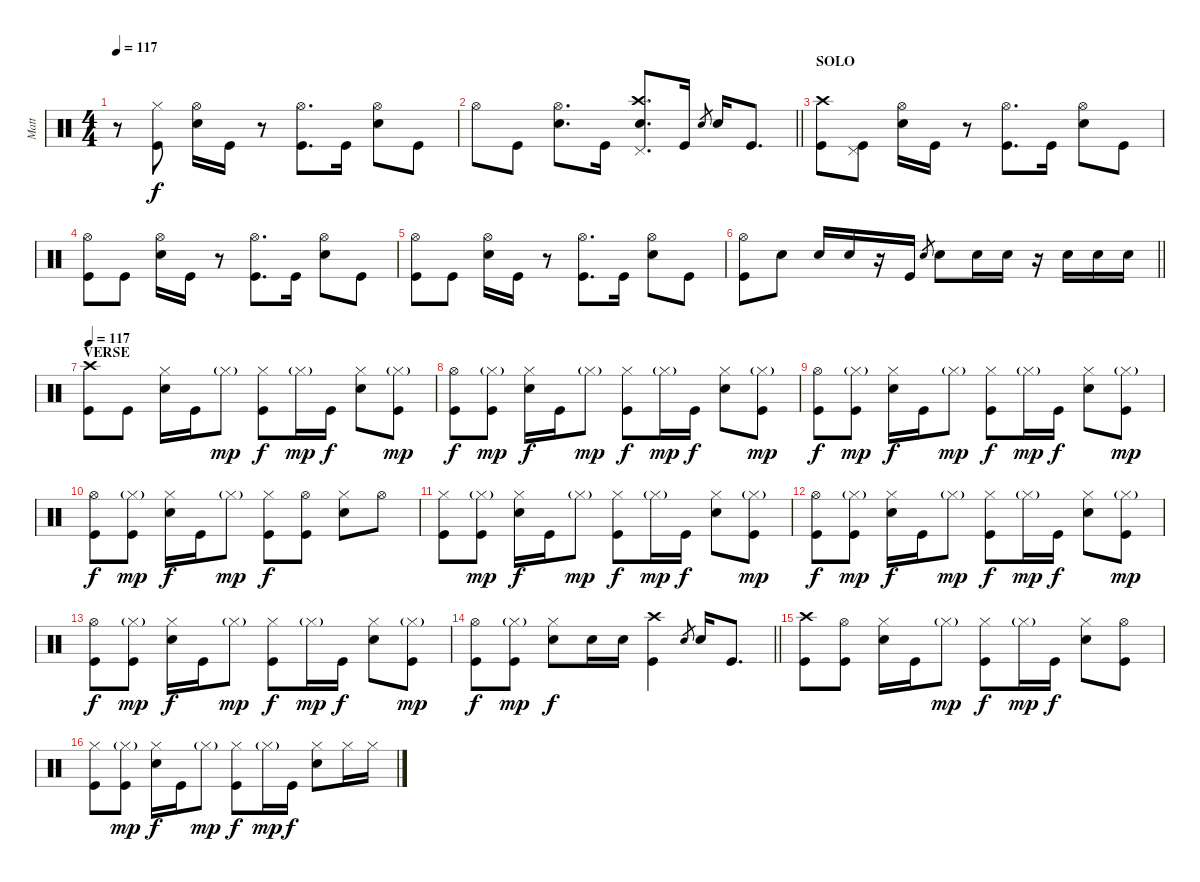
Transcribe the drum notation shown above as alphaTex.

\track ("Matt" "Matt") {instrument percussion}
\staff {score}
\articulation defaults
\ts (4 4)
\tempo 117
\clef neutral
\ks c
r.8{dy f} ("Kick (hit)" "Hi-Hat (closed)").8 ("Snare (hit) 2" "Hi-Hat (open)").16 "Kick (hit)".16 r.8 ("Kick (hit)" "Hi-Hat (open)").8{d} "Kick (hit)".16 ("Snare (hit) 2" "Hi-Hat (open)").8 "Kick (hit)".8 |
\barLineRight lightlight "Hi-Hat (open)".8 "Kick (hit)".8
("Snare (hit) 2" "Hi-Hat (open)").8{d} "Kick (hit)".16 ("Crash high (hit)" "Snare (hit) 2" "Pedal Hi-Hat (hit)").8{d} "Kick (hit)".16 "Snare (hit) 2".8{gr} "Snare (hit) 2".16 "Kick (hit)".8{d} |
\section ("" "SOLO")
("Crash high (hit)" "Kick (hit)").8 ("Kick (hit)" "Pedal Hi-Hat (hit)").8 ("Snare (hit) 2" "Hi-Hat (open)").16 "Kick (hit)".16 r.8 ("Kick (hit)" "Hi-Hat (open)").8{d} "Kick (hit)".16 ("Snare (hit) 2" "Hi-Hat (open)").8 "Kick (hit)".8 |
("Kick (hit)" "Hi-Hat (open)").8 "Kick (hit)".8 ("Snare (hit) 2" "Hi-Hat (open)").16 "Kick (hit)".16 r.8 ("Kick (hit)" "Hi-Hat (open)").8{d} "Kick (hit)".16 ("Snare (hit) 2" "Hi-Hat (open)").8 "Kick (hit)".8 |
("Kick (hit)" "Hi-Hat (open)").8 "Kick (hit)".8 ("Snare (hit) 2" "Hi-Hat (open)").16 "Kick (hit)".16 r.8 ("Kick (hit)" "Hi-Hat (open)").8{d} "Kick (hit)".16 ("Snare (hit) 2" "Hi-Hat (open)").8 "Kick (hit)".8 |
\barLineRight lightlight
("Kick (hit)" "Hi-Hat (open)").8 "Snare (hit) 2".8 "Snare (hit) 2".16 "Snare (hit) 2".16 r.16 "Kick (hit)".16 "Snare (hit) 2".8{gr} "Snare (hit) 2".8 "Snare (hit) 2".16 "Snare (hit) 2".16 r.16 "Snare (hit) 2".16 "Snare (hit) 2".16 "Snare (hit) 2".16 |
\section ("" "VERSE")
\tempo 117
("Crash high (hit)" "Kick (hit)").8 "Kick (hit)".8 ("Snare (hit) 2" "Hi-Hat (closed)").16 "Kick (hit)".16 "Hi-Hat (closed)"{g}.8{dy mp} ("Kick (hit)" "Hi-Hat (closed)").8{dy f} "Hi-Hat (closed)"{g}.16{dy mp} "Kick (hit)".16{dy f} ("Snare (hit) 2" "Hi-Hat (closed)").8 ("Kick (hit)" "Hi-Hat (closed)"{g}).8{dy mp} |
("Kick (hit)" "Hi-Hat (open)").8{dy f} ("Kick (hit)" "Hi-Hat (closed)"{g}).8{dy mp} ("Snare (hit) 2" "Hi-Hat (closed)").16{dy f} "Kick (hit)".16 "Hi-Hat (closed)"{g}.8{dy mp} ("Kick (hit)" "Hi-Hat (closed)").8{dy f} "Hi-Hat (closed)"{g}.16{dy mp} "Kick (hit)".16{dy f} ("Snare (hit) 2" "Hi-Hat (closed)").8 ("Kick (hit)" "Hi-Hat (closed)"{g}).8{dy mp} |
("Kick (hit)" "Hi-Hat (open)").8{dy f} ("Kick (hit)" "Hi-Hat (closed)"{g}).8{dy mp} ("Snare (hit) 2" "Hi-Hat (closed)").16{dy f} "Kick (hit)".16 "Hi-Hat (closed)"{g}.8{dy mp} ("Kick (hit)" "Hi-Hat (closed)").8{dy f} "Hi-Hat (closed)"{g}.16{dy mp} "Kick (hit)".16{dy f} ("Snare (hit) 2" "Hi-Hat (closed)").8 ("Kick (hit)" "Hi-Hat (closed)"{g}).8{dy mp} |
("Kick (hit)" "Hi-Hat (open)").8{dy f} ("Kick (hit)" "Hi-Hat (closed)"{g}).8{dy mp} ("Snare (hit) 2" "Hi-Hat (closed)").16{dy f} "Kick (hit)".16 "Hi-Hat (closed)"{g}.8{dy mp} ("Kick (hit)" "Hi-Hat (closed)").8{dy f} ("Kick (hit)" "Hi-Hat (open)").8 ("Snare (hit) 2" "Hi-Hat (closed)").8 "Hi-Hat (open)".8 |
("Kick (hit)" "Hi-Hat (closed)").8 ("Kick (hit)" "Hi-Hat (closed)"{g}).8{dy mp} ("Snare (hit) 2" "Hi-Hat (closed)").16{dy f} "Kick (hit)".16 "Hi-Hat (closed)"{g}.8{dy mp} ("Kick (hit)" "Hi-Hat (closed)").8{dy f} "Hi-Hat (closed)"{g}.16{dy mp} "Kick (hit)".16{dy f} ("Snare (hit) 2" "Hi-Hat (closed)").8 ("Kick (hit)" "Hi-Hat (closed)"{g}).8{dy mp} |
("Kick (hit)" "Hi-Hat (open)").8{dy f} ("Kick (hit)" "Hi-Hat (closed)"{g}).8{dy mp} ("Snare (hit) 2" "Hi-Hat (closed)").16{dy f} "Kick (hit)".16 "Hi-Hat (closed)"{g}.8{dy mp} ("Kick (hit)" "Hi-Hat (closed)").8{dy f} "Hi-Hat (closed)"{g}.16{dy mp} "Kick (hit)".16{dy f} ("Snare (hit) 2" "Hi-Hat (closed)").8 ("Kick (hit)" "Hi-Hat (closed)"{g}).8{dy mp} |
("Kick (hit)" "Hi-Hat (open)").8{dy f} ("Kick (hit)" "Hi-Hat (closed)"{g}).8{dy mp} ("Snare (hit) 2" "Hi-Hat (closed)").16{dy f} "Kick (hit)".16 "Hi-Hat (closed)"{g}.8{dy mp} ("Kick (hit)" "Hi-Hat (closed)").8{dy f} "Hi-Hat (closed)"{g}.16{dy mp} "Kick (hit)".16{dy f} ("Snare (hit) 2" "Hi-Hat (closed)").8 ("Kick (hit)" "Hi-Hat (closed)"{g}).8{dy mp} |
\barLineRight lightlight
("Kick (hit)" "Hi-Hat (open)").8{dy f} ("Kick (hit)" "Hi-Hat (closed)"{g}).8{dy mp} ("Snare (hit) 2" "Hi-Hat (closed)").8{dy f} "Snare (hit) 2".16 "Snare (hit) 2".16 ("Crash high (hit)" "Kick (hit)").4 "Snare (hit) 2".8{gr} "Snare (hit) 2".16 "Kick (hit)".8{d} |
("Crash high (hit)" "Kick (hit)").8 ("Kick (hit)" "Hi-Hat (open)").8 ("Snare (hit) 2" "Hi-Hat (closed)").16 "Kick (hit)".16 "Hi-Hat (closed)"{g}.8{dy mp} ("Kick (hit)" "Hi-Hat (closed)").8{dy f} "Hi-Hat (closed)"{g}.16{dy mp} "Kick (hit)".16{dy f} ("Snare (hit) 2" "Hi-Hat (closed)").8 ("Kick (hit)" "Hi-Hat (open)").8 |
("Kick (hit)" "Hi-Hat (closed)").8 ("Kick (hit)" "Hi-Hat (closed)"{g}).8{dy mp} ("Snare (hit) 2" "Hi-Hat (closed)").16{dy f} "Kick (hit)".16 "Hi-Hat (closed)"{g}.8{dy mp} ("Kick (hit)" "Hi-Hat (closed)").8{dy f} "Hi-Hat (closed)"{g}.16{dy mp} "Kick (hit)".16{dy f} ("Snare (hit) 2" "Hi-Hat (closed)").8 "Hi-Hat (closed)".16 "Hi-Hat (closed)".16
